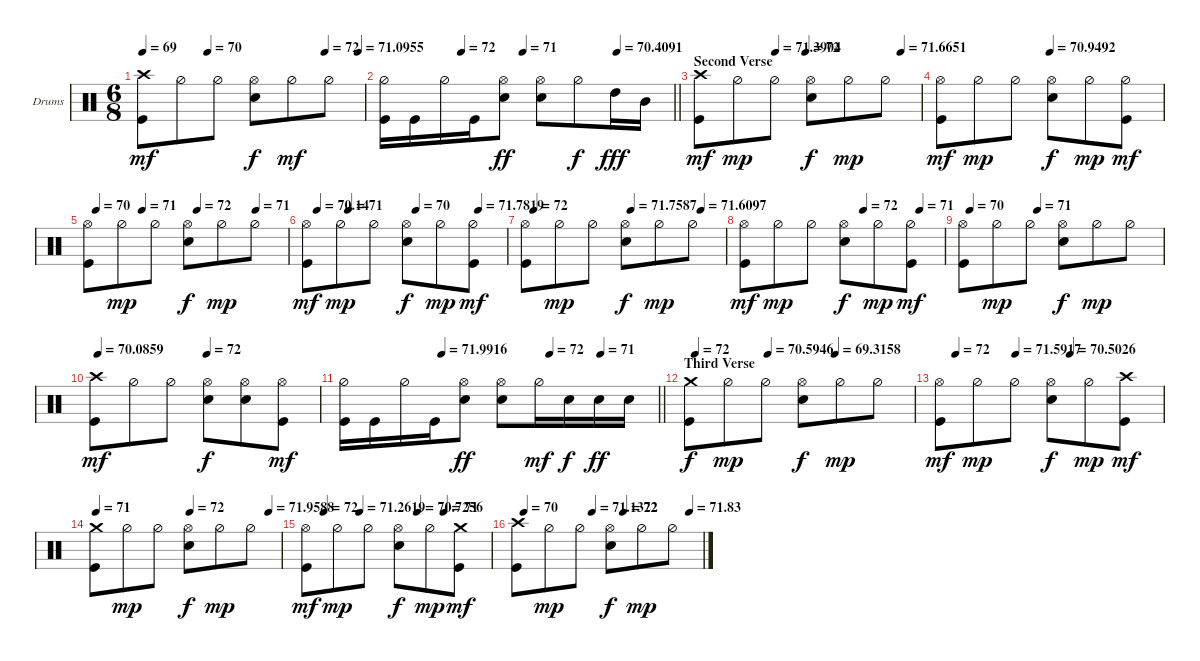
\bracketExtendMode groupsimilarinstruments
\firstSystemTrackNameOrientation horizontal
\otherSystemsTrackNameOrientation horizontal
\track ("Drums" "Drums") {instrument percussion}
\staff {score}
\articulation defaults
\ts (6 8)
\tempo 69
\tempo (70 0.29375)
\tempo (72 0.825)
\tempo (71.0955 0.975)
\clef neutral
\ks c
("Crash high (hit)" "Kick (hit)").8{dy mf} "Hi-Hat (half)".8 "Hi-Hat (half)".8 ("Hi-Hat (open)" "Snare (hit) 2").8{dy f} "Hi-Hat (half)".8{dy mf} "Hi-Hat (half)".8 |
\tempo (72 0.26875)
\tempo (71 0.48125)
\tempo (70.4091 0.80625)
\barLineRight lightlight
("Hi-Hat (half)" "Kick (hit)").16 "Kick (hit)".16 "Hi-Hat (half)".16 "Kick (hit)".16 ("Hi-Hat (open)" "Snare (hit) 2").8{dy ff} ("Hi-Hat (open)" "Snare (hit) 2").8 "Hi-Hat (half)".8{dy f} "High Tom (hit)".16{dy fff} "Mid Tom (hit)".16 |
\section ("" "Second Verse")
\tempo (71.3904 0.34375)
\tempo (72 0.48125)
\tempo (71.6651 0.9125)
("Crash high (hit)" "Kick (hit)").8{dy mf} "Hi-Hat (half)".8{dy mp} "Hi-Hat (half)".8 ("Hi-Hat (open)" "Snare (hit) 2").8{dy f} "Hi-Hat (half)".8{dy mp} "Hi-Hat (half)".8 |
\tempo (70.9492 0.49375)
("Hi-Hat (open)" "Kick (hit)").8{dy mf} "Hi-Hat (half)".8{dy mp} "Hi-Hat (half)".8 ("Hi-Hat (open)" "Snare (hit) 2").8{dy f} "Hi-Hat (half)".8{dy mp} ("Hi-Hat (half)" "Kick (hit)").8{dy mf} |
\tempo (70 0.04375)
\tempo (71 0.275)
\tempo (72 0.55)
\tempo (71 0.84375)
("Hi-Hat (open)" "Kick (hit)").8 "Hi-Hat (half)".8{dy mp} "Hi-Hat (half)".8 ("Hi-Hat (open)" "Snare (hit) 2").8{dy f} "Hi-Hat (half)".8{dy mp} "Hi-Hat (half)".8 |
\tempo (70.14 0.05625)
\tempo (71 0.2125)
\tempo (70 0.55)
\tempo (71.7819 0.8625)
("Hi-Hat (open)" "Kick (hit)").8{dy mf} "Hi-Hat (half)".8{dy mp} "Hi-Hat (half)".8 ("Hi-Hat (open)" "Snare (hit) 2").8{dy f} "Hi-Hat (half)".8{dy mp} ("Hi-Hat (half)" "Kick (hit)").8{dy mf} |
\tempo (72 0.04375)
\tempo (71.7587 0.53125)
\tempo (71.6097 0.88125)
("Hi-Hat (open)" "Kick (hit)").8 "Hi-Hat (half)".8{dy mp} "Hi-Hat (half)".8 ("Hi-Hat (open)" "Snare (hit) 2").8{dy f} "Hi-Hat (half)".8{dy mp} "Hi-Hat (half)".8 |
\tempo (72 0.6)
\tempo (71 0.88125)
("Hi-Hat (open)" "Kick (hit)").8{dy mf} "Hi-Hat (half)".8{dy mp} "Hi-Hat (half)".8 ("Hi-Hat (open)" "Snare (hit) 2").8{dy f} "Hi-Hat (half)".8{dy mp} ("Hi-Hat (half)" "Kick (hit)").8{dy mf} |
\tempo (70 0.0375)
\tempo (71 0.375)
("Hi-Hat (open)" "Kick (hit)").8 "Hi-Hat (half)".8{dy mp} "Hi-Hat (half)".8 ("Hi-Hat (open)" "Snare (hit) 2").8{dy f} "Hi-Hat (half)".8{dy mp} "Hi-Hat (half)".8 |
\tempo (70.0859 0.0125)
\tempo (72 0.5)
("Crash high (hit)" "Kick (hit)").8{dy mf} "Hi-Hat (half)".8 "Hi-Hat (half)".8 ("Hi-Hat (open)" "Snare (hit) 2").8{dy f} ("Hi-Hat (open)" "Snare (hit) 2").8 ("Hi-Hat (open)" "Kick (hit)").8{dy mf} |
\tempo (71.9916 0.3125)
\tempo (72 0.65625)
\tempo (71 0.81875)
\barLineRight lightlight
("Hi-Hat (half)" "Kick (hit)").16 "Kick (hit)".16 "Hi-Hat (half)".16 "Kick (hit)".16 ("Hi-Hat (open)" "Snare (hit) 2").8{dy ff} ("Hi-Hat (open)" "Snare (hit) 2").8 "Hi-Hat (half)".16{dy mf} "Snare (hit) 2".16{dy f} "Snare (hit) 2".16{dy ff} "Snare (hit) 2".16 |
\section ("" "Third Verse")
\tempo (72 0.025)
\tempo (70.5946 0.35)
\tempo (69.3158 0.65)
("Crash medium (hit)" "Kick (hit)").8{dy f} "Hi-Hat (half)".8{dy mp} "Hi-Hat (half)".8 ("Hi-Hat (open)" "Snare (hit) 2").8{dy f} "Hi-Hat (half)".8{dy mp} "Hi-Hat (half)".8 |
\tempo (72 0.075)
\tempo (71.5917 0.34375)
\tempo (70.5026 0.5875)
("Hi-Hat (open)" "Kick (hit)").8{dy mf} "Hi-Hat (half)".8{dy mp} "Hi-Hat (half)".8 ("Hi-Hat (open)" "Snare (hit) 2").8{dy f} "Hi-Hat (half)".8{dy mp} ("Crash high (hit)" "Kick (hit)").8{dy mf} |
\tempo (71 0.00625)
\tempo (72 0.5125)
\tempo (71.9588 0.9375)
("Crash medium (hit)" "Kick (hit)").8 "Hi-Hat (half)".8{dy mp} "Hi-Hat (half)".8 ("Hi-Hat (open)" "Snare (hit) 2").8{dy f} "Hi-Hat (half)".8{dy mp} "Hi-Hat (half)".8 |
\tempo (72 0.1)
\tempo (71.2619 0.29375)
\tempo (70.7256 0.60625)
\tempo (71 0.75)
("Hi-Hat (open)" "Kick (hit)").8{dy mf} "Hi-Hat (half)".8{dy mp} "Hi-Hat (half)".8 ("Hi-Hat (open)" "Snare (hit) 2").8{dy f} "Hi-Hat (half)".8{dy mp} ("Crash medium (hit)" "Kick (hit)").8{dy mf} |
\tempo (70 0.0375)
\tempo (71.1322 0.40625)
\tempo (72 0.575)
\tempo (71.83 0.93125)
("Crash high (hit)" "Kick (hit)").8 "Hi-Hat (half)".8{dy mp} "Hi-Hat (half)".8 ("Hi-Hat (open)" "Snare (hit) 2").8{dy f} "Hi-Hat (half)".8{dy mp} "Hi-Hat (half)".8
